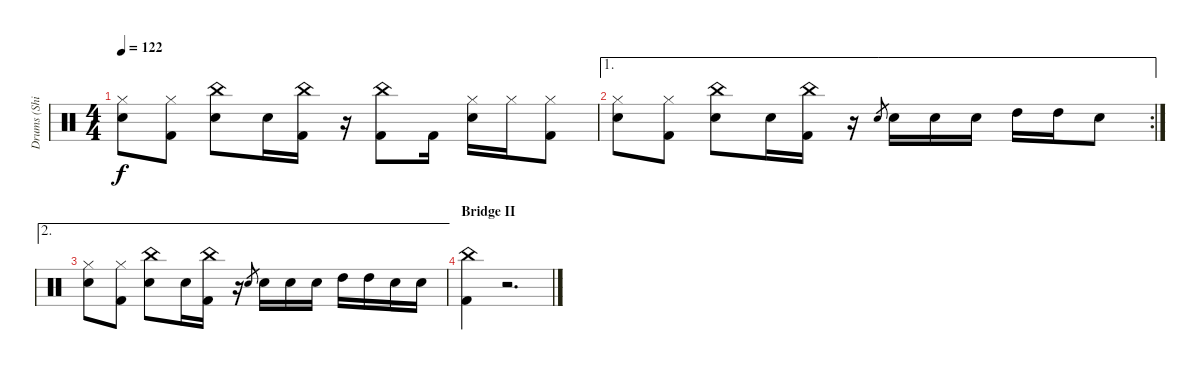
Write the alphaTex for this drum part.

\track ("Drums (Shinya)" "Drums (Shi") {instrument percussion}
\staff {score}
\articulation defaults
\ts (4 4)
\tempo 122
\clef neutral
\ks c
("Snare (hit) 2" "Hi-Hat (closed)").8{dy f} ("Hi-Hat (closed)" "Kick (hit) 2").8 ("Snare (hit) 2" "China (hit)").8 "Snare (hit) 2".16 ("China (hit)" "Kick (hit) 2").16 r.16 ("China (hit)" "Kick (hit) 2").8 "Kick (hit) 2".16 ("Snare (hit) 2" "Hi-Hat (closed)").16 "Hi-Hat (closed)".16 ("Hi-Hat (closed)" "Kick (hit) 2").8 |
\ae 1
\rc 2
("Snare (hit) 2" "Hi-Hat (closed)").8 ("Hi-Hat (closed)" "Kick (hit) 2").8 ("Snare (hit) 2" "China (hit)").8 "Snare (hit) 2".16 ("China (hit)" "Kick (hit) 2").16 r.16 "Snare (hit) 2".8{gr} "Snare (hit) 2".16 "Snare (hit) 2".16 "Snare (hit) 2".16 "High Tom (hit)".16 "High Tom (hit)".16 "Snare (hit) 2".8 |
\ae 2
("Snare (hit) 2" "Hi-Hat (closed)").8 ("Hi-Hat (closed)" "Kick (hit) 2").8 ("Snare (hit) 2" "China (hit)").8 "Snare (hit) 2".16 ("China (hit)" "Kick (hit) 2").16 r.16 "Snare (hit) 2".8{gr} "Snare (hit) 2".16 "Snare (hit) 2".16 "Snare (hit) 2".16 "High Tom (hit)".16 "High Tom (hit)".16 "Snare (hit) 2".16 "Snare (hit) 2".16 |
\section ("" "Bridge II")
("China (hit)" "Kick (hit) 2").4 r.2{d}
